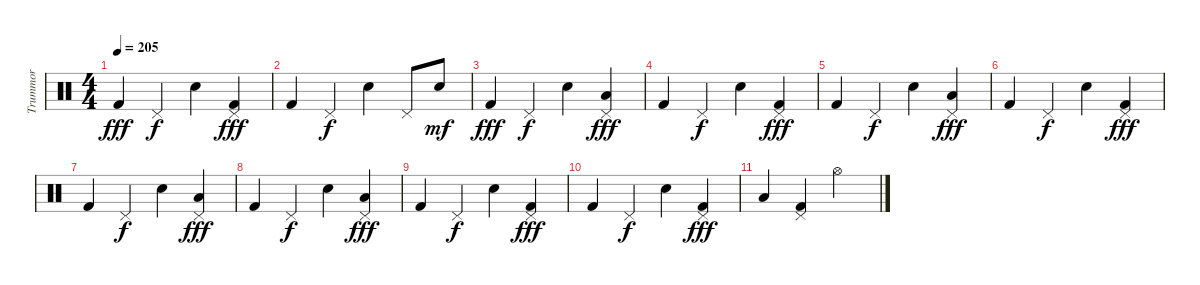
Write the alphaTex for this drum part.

\track ("Trummor" "Trummor") {instrument percussion}
\staff {score}
\articulation defaults
\ts (4 4)
\tempo 205
\clef neutral
\ks c "Kick (hit) 2".4{dy fff} "Pedal Hi-Hat (hit)".4{dy f} "Electric Snare (hit)".4
("Pedal Hi-Hat (hit)" "Kick (hit) 2").4{dy fff} |
"Kick (hit) 2".4 "Pedal Hi-Hat (hit)".4{dy f} "Electric Snare (hit)".4 "Pedal Hi-Hat (hit)".8 "Electric Snare (hit)".8{dy mf} |
"Kick (hit) 2".4{dy fff} "Pedal Hi-Hat (hit)".4{dy f} "Electric Snare (hit)".4 ("Pedal Hi-Hat (hit)" "Low Tom (hit)").4{dy fff} |
"Kick (hit) 2".4 "Pedal Hi-Hat (hit)".4{dy f} "Electric Snare (hit)".4 ("Pedal Hi-Hat (hit)" "Kick (hit) 2").4{dy fff} |
"Kick (hit) 2".4 "Pedal Hi-Hat (hit)".4{dy f} "Electric Snare (hit)".4 ("Pedal Hi-Hat (hit)" "Low Tom (hit)").4{dy fff} |
"Kick (hit) 2".4 "Pedal Hi-Hat (hit)".4{dy f} "Electric Snare (hit)".4 ("Pedal Hi-Hat (hit)" "Kick (hit) 2").4{dy fff} |
"Kick (hit) 2".4 "Pedal Hi-Hat (hit)".4{dy f} "Electric Snare (hit)".4 ("Pedal Hi-Hat (hit)" "Low Tom (hit)").4{dy fff} |
"Kick (hit) 2".4 "Pedal Hi-Hat (hit)".4{dy f} "Electric Snare (hit)".4 ("Pedal Hi-Hat (hit)" "Low Tom (hit)").4{dy fff} |
"Kick (hit) 2".4 "Pedal Hi-Hat (hit)".4{dy f} "Electric Snare (hit)".4 ("Pedal Hi-Hat (hit)" "Kick (hit) 2").4{dy fff} |
"Kick (hit) 2".4 "Pedal Hi-Hat (hit)".4{dy f} "Electric Snare (hit)".4 ("Pedal Hi-Hat (hit)" "Kick (hit) 2").4{dy fff} |
"Low Floor Tom (hit)".4 ("Pedal Hi-Hat (hit)" "Kick (hit) 2").4 "Hi-Hat (open)".2
